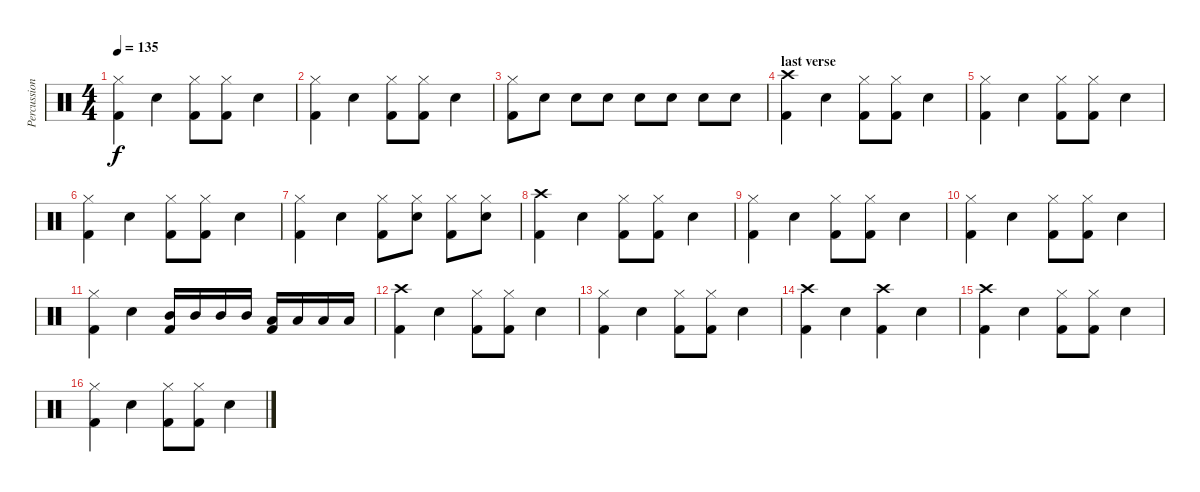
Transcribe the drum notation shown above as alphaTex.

\track ("Percussion" "Percussion") {instrument percussion}
\staff {score}
\articulation defaults
\ts (4 4)
\tempo 135
\clef neutral
\ks c
("Hi-Hat (closed)" "Kick (hit) 2").4{dy f} "Snare (hit) 2".4 ("Kick (hit) 2" "Hi-Hat (closed)").8 ("Kick (hit) 2" "Hi-Hat (closed)").8 "Snare (hit) 2".4 |
("Hi-Hat (closed)" "Kick (hit) 2").4 "Snare (hit) 2".4 ("Kick (hit) 2" "Hi-Hat (closed)").8 ("Kick (hit) 2" "Hi-Hat (closed)").8 "Snare (hit) 2".4 |
("Hi-Hat (closed)" "Kick (hit) 2").8 "Snare (hit) 2".8 "Snare (hit) 2".8 "Snare (hit) 2".8 "Snare (hit) 2".8 "Snare (hit) 2".8 "Snare (hit) 2".8 "Snare (hit) 2".8 |
\section ("" "last verse")
("Crash high (hit)" "Kick (hit) 2").4 "Snare (hit) 2".4 ("Kick (hit) 2" "Hi-Hat (closed)").8 ("Kick (hit) 2" "Hi-Hat (closed)").8 "Snare (hit) 2".4 |
("Hi-Hat (closed)" "Kick (hit) 2").4 "Snare (hit) 2".4 ("Kick (hit) 2" "Hi-Hat (closed)").8 ("Kick (hit) 2" "Hi-Hat (closed)").8 "Snare (hit) 2".4 |
("Hi-Hat (closed)" "Kick (hit) 2").4 "Snare (hit) 2".4 ("Kick (hit) 2" "Hi-Hat (closed)").8 ("Kick (hit) 2" "Hi-Hat (closed)").8 "Snare (hit) 2".4 |
("Hi-Hat (closed)" "Kick (hit) 2").4 "Snare (hit) 2".4 ("Kick (hit) 2" "Hi-Hat (closed)").8 ("Snare (hit) 2" "Hi-Hat (closed)").8 ("Kick (hit) 2" "Hi-Hat (closed)").8 ("Snare (hit) 2" "Hi-Hat (closed)").8 |
("Crash high (hit)" "Kick (hit) 2").4 "Snare (hit) 2".4 ("Kick (hit) 2" "Hi-Hat (closed)").8 ("Kick (hit) 2" "Hi-Hat (closed)").8 "Snare (hit) 2".4 |
("Hi-Hat (closed)" "Kick (hit) 2").4 "Snare (hit) 2".4 ("Kick (hit) 2" "Hi-Hat (closed)").8 ("Kick (hit) 2" "Hi-Hat (closed)").8 "Snare (hit) 2".4 |
("Hi-Hat (closed)" "Kick (hit) 2").4 "Snare (hit) 2".4 ("Kick (hit) 2" "Hi-Hat (closed)").8 ("Kick (hit) 2" "Hi-Hat (closed)").8 "Snare (hit) 2".4 |
("Hi-Hat (closed)" "Kick (hit) 2").4 "Snare (hit) 2".4 ("Mid Tom (hit)" "Kick (hit) 2").16 "Mid Tom (hit)".16 "Mid Tom (hit)".16 "Mid Tom (hit)".16 ("Low Tom (hit)" "Kick (hit) 2").16 "Low Tom (hit)".16 "Low Tom (hit)".16 "Low Tom (hit)".16 |
("Crash high (hit)" "Kick (hit) 2").4 "Snare (hit) 2".4 ("Kick (hit) 2" "Hi-Hat (closed)").8 ("Kick (hit) 2" "Hi-Hat (closed)").8 "Snare (hit) 2".4 |
("Hi-Hat (closed)" "Kick (hit) 2").4 "Snare (hit) 2".4 ("Kick (hit) 2" "Hi-Hat (closed)").8 ("Kick (hit) 2" "Hi-Hat (closed)").8 "Snare (hit) 2".4 |
("Crash high (hit)" "Kick (hit) 2").4 "Snare (hit) 2".4 ("Kick (hit) 2" "Crash high (hit)").4 "Snare (hit) 2".4 |
("Crash high (hit)" "Kick (hit) 2").4 "Snare (hit) 2".4 ("Kick (hit) 2" "Hi-Hat (closed)").8 ("Kick (hit) 2" "Hi-Hat (closed)").8 "Snare (hit) 2".4 |
("Hi-Hat (closed)" "Kick (hit) 2").4 "Snare (hit) 2".4 ("Kick (hit) 2" "Hi-Hat (closed)").8 ("Kick (hit) 2" "Hi-Hat (closed)").8 "Snare (hit) 2".4
